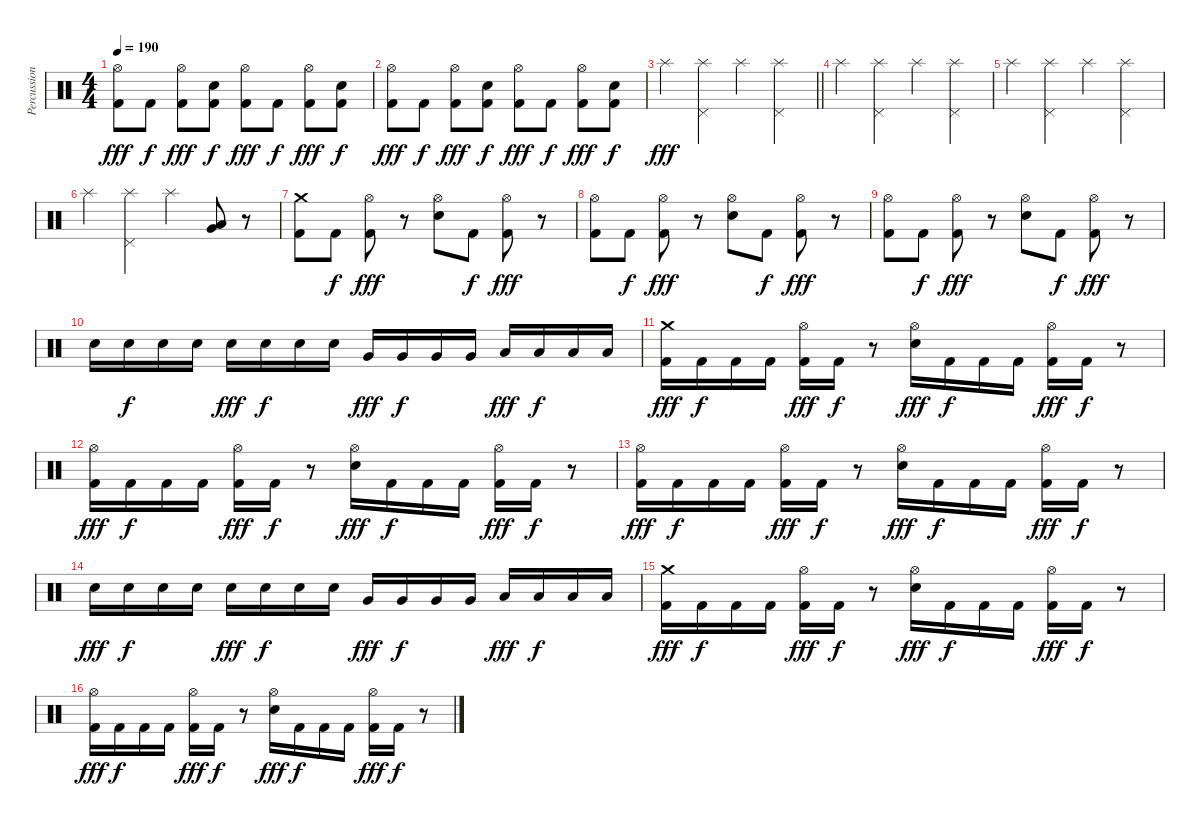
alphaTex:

\track ("Percussions" "Percussion") {instrument percussion}
\staff {score}
\articulation defaults
\ts (4 4)
\tempo 190
\clef neutral
\ks c
("Hi-Hat (open)" "Kick (hit) 2").8{dy fff} "Kick (hit) 2".8{dy f} ("Hi-Hat (open)" "Kick (hit) 2").8{dy fff} ("Snare (hit) 2" "Kick (hit) 2").8{dy f} ("Hi-Hat (open)" "Kick (hit) 2").8{dy fff} "Kick (hit) 2".8{dy f} ("Hi-Hat (open)" "Kick (hit) 2").8{dy fff} ("Snare (hit) 2" "Kick (hit) 2").8{dy f} |
("Hi-Hat (open)" "Kick (hit) 2").8{dy fff} "Kick (hit) 2".8{dy f} ("Hi-Hat (open)" "Kick (hit) 2").8{dy fff} ("Snare (hit) 2" "Kick (hit) 2").8{dy f} ("Hi-Hat (open)" "Kick (hit) 2").8{dy fff} "Kick (hit) 2".8{dy f} ("Hi-Hat (open)" "Kick (hit) 2").8{dy fff} ("Snare (hit) 2" "Kick (hit) 2").8{dy f} |
\barLineRight lightlight "Splash (hit)".4{dy fff}
("Splash (hit)" "Pedal Hi-Hat (hit)").4 "Splash (hit)".4 ("Splash (hit)" "Pedal Hi-Hat (hit)").4 |
"Splash (hit)".4 ("Splash (hit)" "Pedal Hi-Hat (hit)").4 "Splash (hit)".4 ("Splash (hit)" "Pedal Hi-Hat (hit)").4 |
"Splash (hit)".4 ("Splash (hit)" "Pedal Hi-Hat (hit)").4 "Splash (hit)".4 ("Splash (hit)" "Pedal Hi-Hat (hit)").4 |
"Splash (hit)".4 ("Splash (hit)" "Pedal Hi-Hat (hit)").4 "Splash (hit)".4 ("Very Low Tom (hit)" "Low Floor Tom (hit)").8 r.8 |
("Crash medium (hit)" "Kick (hit) 2").8 "Kick (hit) 2".8{dy f} ("Hi-Hat (open)" "Kick (hit) 2").8{dy fff} r.8 ("Hi-Hat (open)" "Snare (hit) 2").8 "Kick (hit) 2".8{dy f} ("Hi-Hat (open)" "Kick (hit) 2").8{dy fff} r.8 |
("Hi-Hat (open)" "Kick (hit) 2").8 "Kick (hit) 2".8{dy f} ("Hi-Hat (open)" "Kick (hit) 2").8{dy fff} r.8 ("Hi-Hat (open)" "Snare (hit) 2").8 "Kick (hit) 2".8{dy f} ("Hi-Hat (open)" "Kick (hit) 2").8{dy fff} r.8 |
("Hi-Hat (open)" "Kick (hit) 2").8 "Kick (hit) 2".8{dy f} ("Hi-Hat (open)" "Kick (hit) 2").8{dy fff} r.8 ("Hi-Hat (open)" "Snare (hit) 2").8 "Kick (hit) 2".8{dy f} ("Hi-Hat (open)" "Kick (hit) 2").8{dy fff} r.8 |
"Snare (hit) 2".16 "Snare (hit) 2".16{dy f} "Snare (hit) 2".16 "Snare (hit) 2".16 "Snare (hit) 2".16{dy fff} "Snare (hit) 2".16{dy f} "Snare (hit) 2".16 "Snare (hit) 2".16 "Very Low Tom (hit)".16{dy fff} "Very Low Tom (hit)".16{dy f} "Very Low Tom (hit)".16 "Very Low Tom (hit)".16 "Low Floor Tom (hit)".16{dy fff} "Low Floor Tom (hit)".16{dy f} "Low Floor Tom (hit)".16 "Low Floor Tom (hit)".16 |
("Crash medium (hit)" "Kick (hit) 2").16{dy fff} "Kick (hit) 2".16{dy f} "Kick (hit) 2".16 "Kick (hit) 2".16 ("Hi-Hat (open)" "Kick (hit) 2").16{dy fff} "Kick (hit) 2".16{dy f} r.8 ("Hi-Hat (open)" "Snare (hit) 2").16{dy fff} "Kick (hit) 2".16{dy f} "Kick (hit) 2".16 "Kick (hit) 2".16 ("Hi-Hat (open)" "Kick (hit) 2").16{dy fff} "Kick (hit) 2".16{dy f} r.8 |
("Hi-Hat (open)" "Kick (hit) 2").16{dy fff} "Kick (hit) 2".16{dy f} "Kick (hit) 2".16 "Kick (hit) 2".16 ("Hi-Hat (open)" "Kick (hit) 2").16{dy fff} "Kick (hit) 2".16{dy f} r.8 ("Hi-Hat (open)" "Snare (hit) 2").16{dy fff} "Kick (hit) 2".16{dy f} "Kick (hit) 2".16 "Kick (hit) 2".16 ("Hi-Hat (open)" "Kick (hit) 2").16{dy fff} "Kick (hit) 2".16{dy f} r.8 |
("Hi-Hat (open)" "Kick (hit) 2").16{dy fff} "Kick (hit) 2".16{dy f} "Kick (hit) 2".16 "Kick (hit) 2".16 ("Hi-Hat (open)" "Kick (hit) 2").16{dy fff} "Kick (hit) 2".16{dy f} r.8 ("Hi-Hat (open)" "Snare (hit) 2").16{dy fff} "Kick (hit) 2".16{dy f} "Kick (hit) 2".16 "Kick (hit) 2".16 ("Hi-Hat (open)" "Kick (hit) 2").16{dy fff} "Kick (hit) 2".16{dy f} r.8 |
"Snare (hit) 2".16{dy fff} "Snare (hit) 2".16{dy f} "Snare (hit) 2".16 "Snare (hit) 2".16 "Snare (hit) 2".16{dy fff} "Snare (hit) 2".16{dy f} "Snare (hit) 2".16 "Snare (hit) 2".16 "Very Low Tom (hit)".16{dy fff} "Very Low Tom (hit)".16{dy f} "Very Low Tom (hit)".16 "Very Low Tom (hit)".16 "Low Floor Tom (hit)".16{dy fff} "Low Floor Tom (hit)".16{dy f} "Low Floor Tom (hit)".16 "Low Floor Tom (hit)".16 |
("Crash medium (hit)" "Kick (hit) 2").16{dy fff} "Kick (hit) 2".16{dy f} "Kick (hit) 2".16 "Kick (hit) 2".16 ("Hi-Hat (open)" "Kick (hit) 2").16{dy fff} "Kick (hit) 2".16{dy f} r.8 ("Hi-Hat (open)" "Snare (hit) 2").16{dy fff} "Kick (hit) 2".16{dy f} "Kick (hit) 2".16 "Kick (hit) 2".16 ("Hi-Hat (open)" "Kick (hit) 2").16{dy fff} "Kick (hit) 2".16{dy f} r.8 |
("Hi-Hat (open)" "Kick (hit) 2").16{dy fff} "Kick (hit) 2".16{dy f} "Kick (hit) 2".16 "Kick (hit) 2".16 ("Hi-Hat (open)" "Kick (hit) 2").16{dy fff} "Kick (hit) 2".16{dy f} r.8 ("Hi-Hat (open)" "Snare (hit) 2").16{dy fff} "Kick (hit) 2".16{dy f} "Kick (hit) 2".16 "Kick (hit) 2".16 ("Hi-Hat (open)" "Kick (hit) 2").16{dy fff} "Kick (hit) 2".16{dy f} r.8
